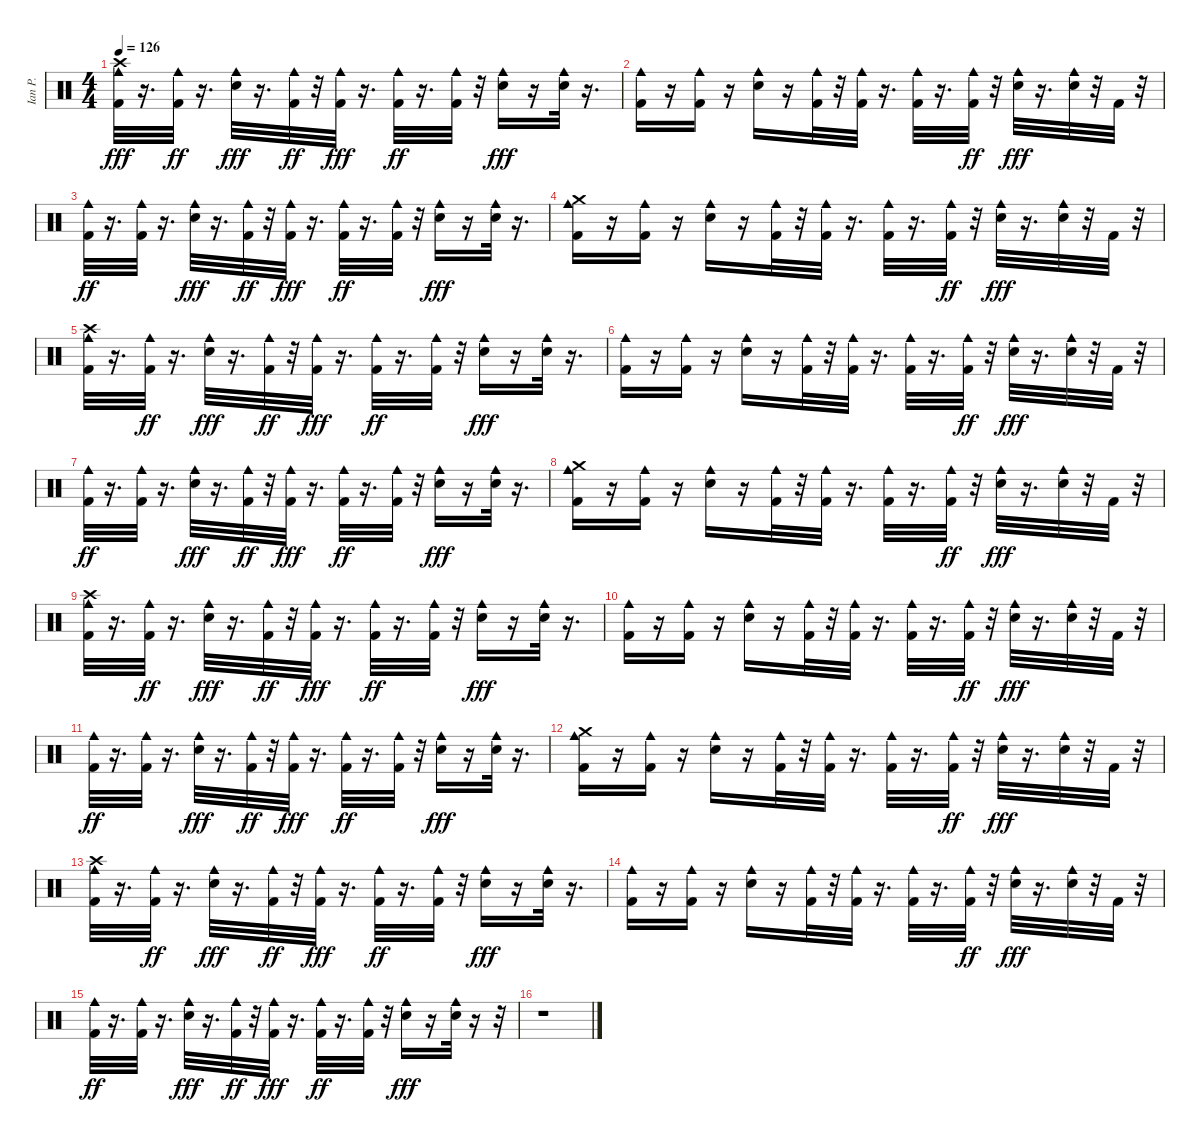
\track ("Ian P." "Ian P.") {instrument percussion}
\staff {score}
\articulation defaults
\ts (4 4)
\tempo 126
\clef neutral
\ks c
("Kick (hit) 2" "Cowbell medium (hit)" "Crash high (hit)").32{dy fff} r.16{d} ("Kick (hit) 2" "Cowbell medium (hit)").32{dy ff} r.16{d} ("Cowbell medium (hit)" "Snare (hit) 2").32{dy fff} r.16{d} ("Cowbell medium (hit)" "Kick (hit) 2").32{dy ff} r.32 ("Cowbell medium (hit)" "Kick (hit) 2").32{dy fff} r.16{d} ("Kick (hit) 2" "Cowbell medium (hit)").32{dy ff} r.16{d} ("Cowbell medium (hit)" "Kick (hit) 2").32 r.32 ("Cowbell medium (hit)" "Snare (hit) 2").16{dy fff} r.16 ("Cowbell medium (hit)" "Snare (hit) 2").32 r.16{d} |
("Cowbell medium (hit)" "Kick (hit) 2").16 r.16 ("Cowbell medium (hit)" "Kick (hit) 2").16 r.16 ("Cowbell medium (hit)" "Snare (hit) 2").16 r.16 ("Cowbell medium (hit)" "Kick (hit) 2").32 r.32 ("Cowbell medium (hit)" "Kick (hit) 2").32 r.16{d} ("Kick (hit) 2" "Cowbell medium (hit)").32 r.16{d} ("Kick (hit) 2" "Cowbell medium (hit)").32{dy ff} r.32 ("Snare (hit) 2" "Cowbell medium (hit)").32{dy fff} r.16{d} ("Snare (hit) 2" "Cowbell medium (hit)").32 r.32 "Kick (hit) 2".32 r.32 |
("Kick (hit) 2" "Cowbell medium (hit)").32{dy ff} r.16{d} ("Kick (hit) 2" "Cowbell medium (hit)").32 r.16{d} ("Cowbell medium (hit)" "Snare (hit) 2").32{dy fff} r.16{d} ("Cowbell medium (hit)" "Kick (hit) 2").32{dy ff} r.32 ("Cowbell medium (hit)" "Kick (hit) 2").32{dy fff} r.16{d} ("Kick (hit) 2" "Cowbell medium (hit)").32{dy ff} r.16{d} ("Cowbell medium (hit)" "Kick (hit) 2").32 r.32 ("Cowbell medium (hit)" "Snare (hit) 2").16{dy fff} r.16 ("Cowbell medium (hit)" "Snare (hit) 2").32 r.16{d} |
("Cowbell medium (hit)" "Crash medium (hit)" "Kick (hit) 2").16{volume 16} r.16 ("Cowbell medium (hit)" "Kick (hit) 2").16 r.16 ("Cowbell medium (hit)" "Snare (hit) 2").16 r.16 ("Cowbell medium (hit)" "Kick (hit) 2").32 r.32 ("Cowbell medium (hit)" "Kick (hit) 2").32 r.16{d} ("Kick (hit) 2" "Cowbell medium (hit)").32 r.16{d} ("Kick (hit) 2" "Cowbell medium (hit)").32{dy ff volume 16} r.32 ("Snare (hit) 2" "Cowbell medium (hit)").32{dy fff volume 16} r.16{d} ("Snare (hit) 2" "Cowbell medium (hit)").32{volume 15} r.32 "Kick (hit) 2".32{volume 15} r.32 |
("Kick (hit) 2" "Cowbell medium (hit)" "Crash high (hit)").32{volume 15} r.16{d} ("Kick (hit) 2" "Cowbell medium (hit)").32{dy ff volume 15} r.16{d} ("Cowbell medium (hit)" "Snare (hit) 2").32{dy fff volume 15} r.16{d} ("Cowbell medium (hit)" "Kick (hit) 2").32{dy ff volume 14} r.32 ("Cowbell medium (hit)" "Kick (hit) 2").32{dy fff} r.16{d} ("Kick (hit) 2" "Cowbell medium (hit)").32{dy ff volume 14} r.16{d} ("Cowbell medium (hit)" "Kick (hit) 2").32{volume 14} r.32 ("Cowbell medium (hit)" "Snare (hit) 2").16{dy fff} r.16 ("Cowbell medium (hit)" "Snare (hit) 2").32{volume 14} r.16{d} |
("Cowbell medium (hit)" "Kick (hit) 2").16{volume 13} r.16 ("Cowbell medium (hit)" "Kick (hit) 2").16{volume 13} r.16 ("Cowbell medium (hit)" "Snare (hit) 2").16{volume 13} r.16 ("Cowbell medium (hit)" "Kick (hit) 2").32{volume 13} r.32 ("Cowbell medium (hit)" "Kick (hit) 2").32 r.16{d} ("Kick (hit) 2" "Cowbell medium (hit)").32{volume 12} r.16{d} ("Kick (hit) 2" "Cowbell medium (hit)").32{dy ff} r.32 ("Snare (hit) 2" "Cowbell medium (hit)").32{dy fff volume 12} r.16{d} ("Snare (hit) 2" "Cowbell medium (hit)").32 r.32 "Kick (hit) 2".32 r.32 |
("Kick (hit) 2" "Cowbell medium (hit)").32{dy ff} r.16{d} ("Kick (hit) 2" "Cowbell medium (hit)").32{volume 12} r.16{d} ("Cowbell medium (hit)" "Snare (hit) 2").32{dy fff volume 12} r.16{d} ("Cowbell medium (hit)" "Kick (hit) 2").32{dy ff volume 11} r.32 ("Cowbell medium (hit)" "Kick (hit) 2").32{dy fff} r.16{d} ("Kick (hit) 2" "Cowbell medium (hit)").32{dy ff volume 11} r.16{d} ("Cowbell medium (hit)" "Kick (hit) 2").32{volume 11} r.32 ("Cowbell medium (hit)" "Snare (hit) 2").16{dy fff volume 11} r.16 ("Cowbell medium (hit)" "Snare (hit) 2").32{volume 10} r.16{d} |
("Cowbell medium (hit)" "Crash medium (hit)" "Kick (hit) 2").16{volume 10} r.16 ("Cowbell medium (hit)" "Kick (hit) 2").16{volume 10} r.16 ("Cowbell medium (hit)" "Snare (hit) 2").16{volume 10} r.16 ("Cowbell medium (hit)" "Kick (hit) 2").32{volume 10} r.32 ("Cowbell medium (hit)" "Kick (hit) 2").32 r.16{d} ("Kick (hit) 2" "Cowbell medium (hit)").32{volume 9} r.16{d} ("Kick (hit) 2" "Cowbell medium (hit)").32{dy ff volume 9} r.32 ("Snare (hit) 2" "Cowbell medium (hit)").32{dy fff volume 9} r.16{d} ("Snare (hit) 2" "Cowbell medium (hit)").32{volume 9} r.32 "Kick (hit) 2".32{volume 9} r.32 |
("Kick (hit) 2" "Cowbell medium (hit)" "Crash high (hit)").32{volume 9} r.16{d} ("Kick (hit) 2" "Cowbell medium (hit)").32{dy ff volume 8} r.16{d} ("Cowbell medium (hit)" "Snare (hit) 2").32{dy fff volume 8} r.16{d} ("Cowbell medium (hit)" "Kick (hit) 2").32{dy ff volume 8} r.32 ("Cowbell medium (hit)" "Kick (hit) 2").32{dy fff} r.16{d} ("Kick (hit) 2" "Cowbell medium (hit)").32{dy ff volume 7} r.16{d} ("Cowbell medium (hit)" "Kick (hit) 2").32{volume 7} r.32 ("Cowbell medium (hit)" "Snare (hit) 2").16{dy fff volume 7} r.16 ("Cowbell medium (hit)" "Snare (hit) 2").32{volume 7} r.16{d} |
("Cowbell medium (hit)" "Kick (hit) 2").16{volume 6} r.16 ("Cowbell medium (hit)" "Kick (hit) 2").16{volume 6} r.16 ("Cowbell medium (hit)" "Snare (hit) 2").16{volume 6} r.16 ("Cowbell medium (hit)" "Kick (hit) 2").32{volume 6} r.32 ("Cowbell medium (hit)" "Kick (hit) 2").32{volume 6} r.16{d} ("Kick (hit) 2" "Cowbell medium (hit)").32{volume 6} r.16{d} ("Kick (hit) 2" "Cowbell medium (hit)").32{dy ff volume 5} r.32 ("Snare (hit) 2" "Cowbell medium (hit)").32{dy fff} r.16{d} ("Snare (hit) 2" "Cowbell medium (hit)").32{volume 5} r.32 "Kick (hit) 2".32{volume 5} r.32 |
("Kick (hit) 2" "Cowbell medium (hit)").32{dy ff volume 4} r.16{d} ("Kick (hit) 2" "Cowbell medium (hit)").32{volume 4} r.16{d} ("Cowbell medium (hit)" "Snare (hit) 2").32{dy fff volume 4} r.16{d} ("Cowbell medium (hit)" "Kick (hit) 2").32{dy ff volume 4} r.32 ("Cowbell medium (hit)" "Kick (hit) 2").32{dy fff} r.16{d} ("Kick (hit) 2" "Cowbell medium (hit)").32{dy ff volume 4} r.16{d} ("Cowbell medium (hit)" "Kick (hit) 2").32 r.32 ("Cowbell medium (hit)" "Snare (hit) 2").16{dy fff volume 4} r.16 ("Cowbell medium (hit)" "Snare (hit) 2").32 r.16{d} |
("Cowbell medium (hit)" "Crash medium (hit)" "Kick (hit) 2").16{volume 4} r.16 ("Cowbell medium (hit)" "Kick (hit) 2").16{volume 3} r.16 ("Cowbell medium (hit)" "Snare (hit) 2").16{volume 3} r.16 ("Cowbell medium (hit)" "Kick (hit) 2").32 r.32 ("Cowbell medium (hit)" "Kick (hit) 2").32 r.16{d} ("Kick (hit) 2" "Cowbell medium (hit)").32 r.16{d} ("Kick (hit) 2" "Cowbell medium (hit)").32{dy ff volume 3} r.32 ("Snare (hit) 2" "Cowbell medium (hit)").32{dy fff} r.16{d} ("Snare (hit) 2" "Cowbell medium (hit)").32{volume 3} r.32 "Kick (hit) 2".32 r.32 |
("Kick (hit) 2" "Cowbell medium (hit)" "Crash high (hit)").32 r.16{d} ("Kick (hit) 2" "Cowbell medium (hit)").32{dy ff volume 3} r.16{d} ("Cowbell medium (hit)" "Snare (hit) 2").32{dy fff volume 2} r.16{d} ("Cowbell medium (hit)" "Kick (hit) 2").32{dy ff} r.32 ("Cowbell medium (hit)" "Kick (hit) 2").32{dy fff} r.16{d} ("Kick (hit) 2" "Cowbell medium (hit)").32{dy ff} r.16{d} ("Cowbell medium (hit)" "Kick (hit) 2").32{volume 2} r.32 ("Cowbell medium (hit)" "Snare (hit) 2").16{dy fff} r.16 ("Cowbell medium (hit)" "Snare (hit) 2").32 r.16{d} |
("Cowbell medium (hit)" "Kick (hit) 2").16{volume 2} r.16 ("Cowbell medium (hit)" "Kick (hit) 2").16{volume 2} r.16 ("Cowbell medium (hit)" "Snare (hit) 2").16{volume 2} r.16 ("Cowbell medium (hit)" "Kick (hit) 2").32{volume 2} r.32 ("Cowbell medium (hit)" "Kick (hit) 2").32 r.16{d} ("Kick (hit) 2" "Cowbell medium (hit)").32{volume 1} r.16{d} ("Kick (hit) 2" "Cowbell medium (hit)").32{dy ff} r.32 ("Snare (hit) 2" "Cowbell medium (hit)").32{dy fff volume 1} r.16{d} ("Snare (hit) 2" "Cowbell medium (hit)").32{volume 1} r.32 "Kick (hit) 2".32 r.32 |
("Kick (hit) 2" "Cowbell medium (hit)").32{dy ff volume 1} r.16{d} ("Kick (hit) 2" "Cowbell medium (hit)").32{volume 1} r.16{d} ("Cowbell medium (hit)" "Snare (hit) 2").32{dy fff volume 1} r.16{d} ("Cowbell medium (hit)" "Kick (hit) 2").32{dy ff volume 1} r.32 ("Cowbell medium (hit)" "Kick (hit) 2").32{dy fff} r.16{d} ("Kick (hit) 2" "Cowbell medium (hit)").32{dy ff volume 0} r.16{d} ("Cowbell medium (hit)" "Kick (hit) 2").32 r.32 ("Cowbell medium (hit)" "Snare (hit) 2").16{dy fff} r.16 ("Cowbell medium (hit)" "Snare (hit) 2").32{volume 0} r.16 r.32 |
r.1
